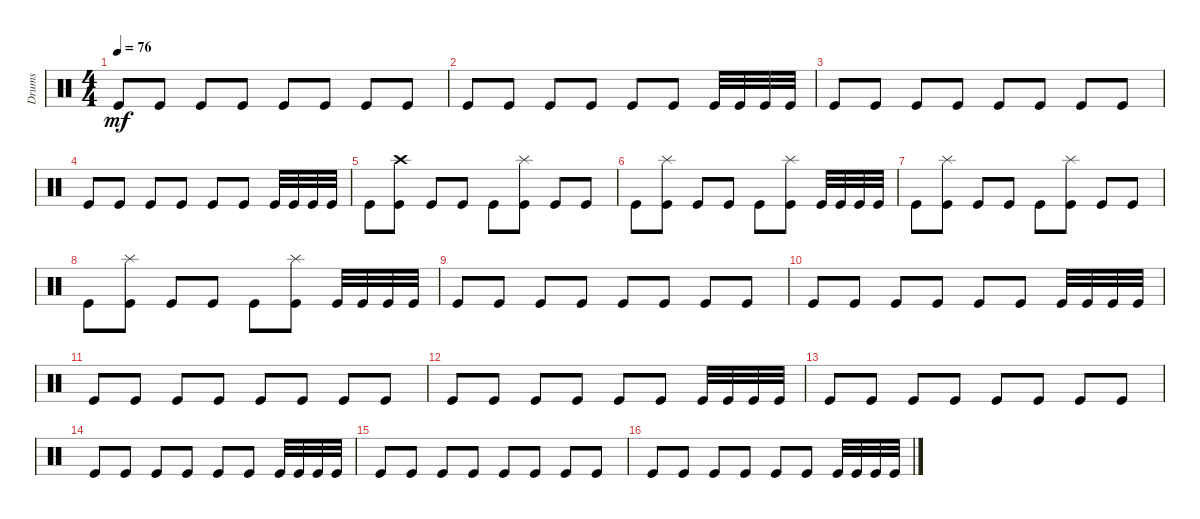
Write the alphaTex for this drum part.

\track ("Drumkit" "Drums") {instrument percussion}
\staff {score}
\articulation defaults
\ts (4 4)
\tempo 76
\clef neutral
\ks c "Kick (hit)".8{dy mf} "Kick (hit)".8 "Kick (hit)".8 "Kick (hit)".8 "Kick (hit)".8 "Kick (hit)".8 "Kick (hit)".8 "Kick (hit)".8
|
"Kick (hit)".8 "Kick (hit)".8 "Kick (hit)".8 "Kick (hit)".8 "Kick (hit)".8 "Kick (hit)".8 "Kick (hit)".32 "Kick (hit)".32 "Kick (hit)".32 "Kick (hit)".32 |
"Kick (hit)".8 "Kick (hit)".8 "Kick (hit)".8 "Kick (hit)".8 "Kick (hit)".8 "Kick (hit)".8 "Kick (hit)".8 "Kick (hit)".8 |
"Kick (hit)".8 "Kick (hit)".8 "Kick (hit)".8 "Kick (hit)".8 "Kick (hit)".8 "Kick (hit)".8 "Kick (hit)".32 "Kick (hit)".32 "Kick (hit)".32 "Kick (hit)".32 |
"Kick (hit)".8 ("Kick (hit)" "Crash high (hit)").8 "Kick (hit)".8 "Kick (hit)".8 "Kick (hit)".8 ("Kick (hit)" "Splash (hit)").8 "Kick (hit)".8 "Kick (hit)".8 |
"Kick (hit)".8 ("Kick (hit)" "Splash (hit)").8 "Kick (hit)".8 "Kick (hit)".8 "Kick (hit)".8 ("Kick (hit)" "Splash (hit)").8 "Kick (hit)".32 "Kick (hit)".32 "Kick (hit)".32 "Kick (hit)".32 |
"Kick (hit)".8 ("Kick (hit)" "Splash (hit)").8 "Kick (hit)".8 "Kick (hit)".8 "Kick (hit)".8 ("Kick (hit)" "Splash (hit)").8 "Kick (hit)".8 "Kick (hit)".8 |
"Kick (hit)".8 ("Kick (hit)" "Splash (hit)").8 "Kick (hit)".8 "Kick (hit)".8 "Kick (hit)".8 ("Kick (hit)" "Splash (hit)").8 "Kick (hit)".32 "Kick (hit)".32 "Kick (hit)".32 "Kick (hit)".32 |
"Kick (hit)".8 "Kick (hit)".8 "Kick (hit)".8 "Kick (hit)".8 "Kick (hit)".8 "Kick (hit)".8 "Kick (hit)".8 "Kick (hit)".8 |
"Kick (hit)".8 "Kick (hit)".8 "Kick (hit)".8 "Kick (hit)".8 "Kick (hit)".8 "Kick (hit)".8 "Kick (hit)".32 "Kick (hit)".32 "Kick (hit)".32 "Kick (hit)".32 |
"Kick (hit)".8 "Kick (hit)".8 "Kick (hit)".8 "Kick (hit)".8 "Kick (hit)".8 "Kick (hit)".8 "Kick (hit)".8 "Kick (hit)".8 |
"Kick (hit)".8 "Kick (hit)".8 "Kick (hit)".8 "Kick (hit)".8 "Kick (hit)".8 "Kick (hit)".8 "Kick (hit)".32 "Kick (hit)".32 "Kick (hit)".32 "Kick (hit)".32 |
"Kick (hit)".8 "Kick (hit)".8 "Kick (hit)".8 "Kick (hit)".8 "Kick (hit)".8 "Kick (hit)".8 "Kick (hit)".8 "Kick (hit)".8 |
"Kick (hit)".8 "Kick (hit)".8 "Kick (hit)".8 "Kick (hit)".8 "Kick (hit)".8 "Kick (hit)".8 "Kick (hit)".32 "Kick (hit)".32 "Kick (hit)".32 "Kick (hit)".32 |
"Kick (hit)".8 "Kick (hit)".8 "Kick (hit)".8 "Kick (hit)".8 "Kick (hit)".8 "Kick (hit)".8 "Kick (hit)".8 "Kick (hit)".8 |
"Kick (hit)".8 "Kick (hit)".8 "Kick (hit)".8 "Kick (hit)".8 "Kick (hit)".8 "Kick (hit)".8 "Kick (hit)".32 "Kick (hit)".32 "Kick (hit)".32 "Kick (hit)".32
